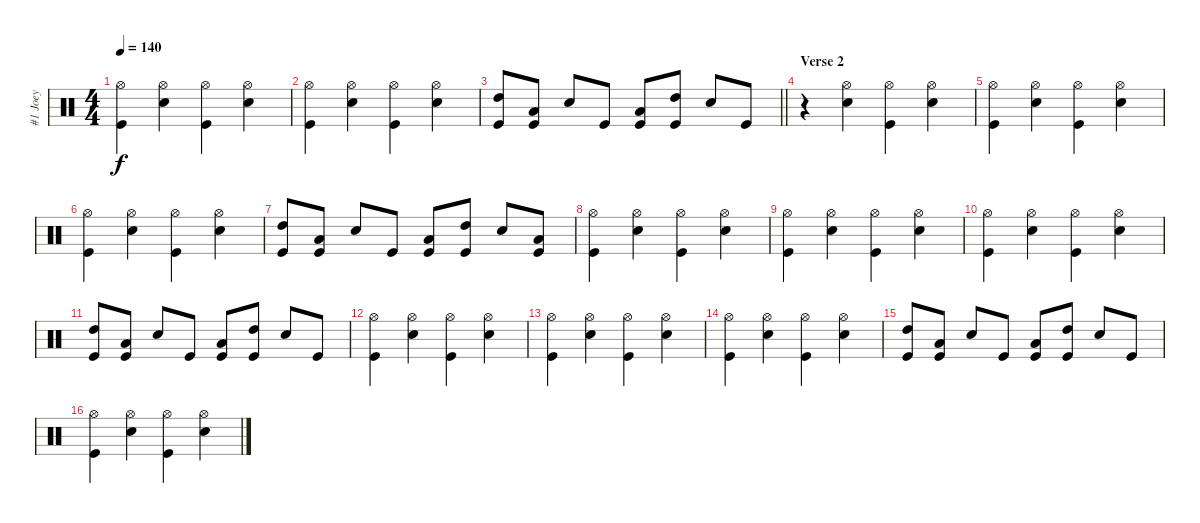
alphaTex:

\track ("#1 Joey" "#1 Joey") {solo instrument percussion}
\staff {score}
\articulation defaults
\ts (4 4)
\tempo 140
\clef neutral
\ks c
("Hi-Hat (open)" "Kick (hit)").4{dy f} ("Hi-Hat (open)" "Electric Snare (hit)").4 ("Hi-Hat (open)" "Kick (hit)").4 ("Hi-Hat (open)" "Electric Snare (hit)").4 |
("Hi-Hat (open)" "Kick (hit)").4 ("Hi-Hat (open)" "Electric Snare (hit)").4 ("Hi-Hat (open)" "Kick (hit)").4 ("Hi-Hat (open)" "Electric Snare (hit)").4 |
\barLineRight lightlight
("High Tom (hit)" "Kick (hit)").8 ("Low Tom (hit)" "Kick (hit)").8 "Electric Snare (hit)".8 "Kick (hit)".8 ("Low Tom (hit)" "Kick (hit)").8 ("High Tom (hit)" "Kick (hit)").8 "Electric Snare (hit)".8 "Kick (hit)".8 |
\section ("" "Verse 2")
r.4 ("Hi-Hat (open)" "Electric Snare (hit)").4 ("Hi-Hat (open)" "Kick (hit)").4 ("Hi-Hat (open)" "Electric Snare (hit)").4 |
("Hi-Hat (open)" "Kick (hit)").4 ("Hi-Hat (open)" "Electric Snare (hit)").4 ("Hi-Hat (open)" "Kick (hit)").4 ("Hi-Hat (open)" "Electric Snare (hit)").4 |
("Hi-Hat (open)" "Kick (hit)").4 ("Hi-Hat (open)" "Electric Snare (hit)").4 ("Hi-Hat (open)" "Kick (hit)").4 ("Hi-Hat (open)" "Electric Snare (hit)").4 |
("High Tom (hit)" "Kick (hit)").8 ("Low Tom (hit)" "Kick (hit)").8 "Electric Snare (hit)".8 "Kick (hit)".8 ("Low Tom (hit)" "Kick (hit)").8 ("High Tom (hit)" "Kick (hit)").8 "Electric Snare (hit)".8 ("Low Floor Tom (hit)" "Kick (hit)").8 |
("Hi-Hat (open)" "Kick (hit)").4 ("Hi-Hat (open)" "Electric Snare (hit)").4 ("Hi-Hat (open)" "Kick (hit)").4 ("Hi-Hat (open)" "Electric Snare (hit)").4 |
("Hi-Hat (open)" "Kick (hit)").4 ("Hi-Hat (open)" "Electric Snare (hit)").4 ("Hi-Hat (open)" "Kick (hit)").4 ("Hi-Hat (open)" "Electric Snare (hit)").4 |
("Hi-Hat (open)" "Kick (hit)").4 ("Hi-Hat (open)" "Electric Snare (hit)").4 ("Hi-Hat (open)" "Kick (hit)").4 ("Hi-Hat (open)" "Electric Snare (hit)").4 |
("High Tom (hit)" "Kick (hit)").8 ("Low Tom (hit)" "Kick (hit)").8 "Electric Snare (hit)".8 "Kick (hit)".8 ("Low Tom (hit)" "Kick (hit)").8 ("High Tom (hit)" "Kick (hit)").8 "Electric Snare (hit)".8 "Kick (hit)".8 |
("Hi-Hat (open)" "Kick (hit)").4 ("Hi-Hat (open)" "Electric Snare (hit)").4 ("Hi-Hat (open)" "Kick (hit)").4 ("Hi-Hat (open)" "Electric Snare (hit)").4 |
("Hi-Hat (open)" "Kick (hit)").4 ("Hi-Hat (open)" "Electric Snare (hit)").4 ("Hi-Hat (open)" "Kick (hit)").4 ("Hi-Hat (open)" "Electric Snare (hit)").4 |
("Hi-Hat (open)" "Kick (hit)").4 ("Hi-Hat (open)" "Electric Snare (hit)").4 ("Hi-Hat (open)" "Kick (hit)").4 ("Hi-Hat (open)" "Electric Snare (hit)").4 |
("High Tom (hit)" "Kick (hit)").8 ("Low Tom (hit)" "Kick (hit)").8 "Electric Snare (hit)".8 "Kick (hit)".8 ("Low Tom (hit)" "Kick (hit)").8 ("High Tom (hit)" "Kick (hit)").8 "Electric Snare (hit)".8 "Kick (hit)".8 |
("Hi-Hat (open)" "Kick (hit)").4 ("Hi-Hat (open)" "Electric Snare (hit)").4 ("Hi-Hat (open)" "Kick (hit)").4 ("Hi-Hat (open)" "Electric Snare (hit)").4
